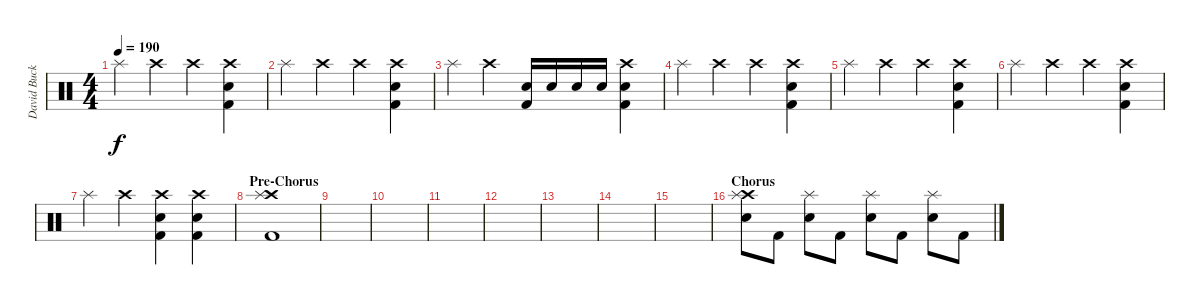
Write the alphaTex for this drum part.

\track ("David Buckner" "David Buck") {instrument percussion}
\staff {score}
\articulation defaults
\ts (4 4)
\tempo 190
\clef neutral
\ks c "Splash (hit)".4{dy f} "Crash high (hit)".4 "Crash high (hit)".4
("Crash high (hit)" "Snare (hit) 2" "Kick (hit) 2").4 |
"Splash (hit)".4 "Crash high (hit)".4 "Crash high (hit)".4 ("Crash high (hit)" "Snare (hit) 2" "Kick (hit) 2").4 |
"Splash (hit)".4 "Crash high (hit)".4 ("Snare (hit) 2" "Kick (hit) 2").16 "Snare (hit) 2".16 "Snare (hit) 2".16 "Snare (hit) 2".16 ("Crash high (hit)" "Snare (hit) 2" "Kick (hit) 2").4 |
"Splash (hit)".4 "Crash high (hit)".4 "Crash high (hit)".4 ("Crash high (hit)" "Snare (hit) 2" "Kick (hit) 2").4 |
"Splash (hit)".4 "Crash high (hit)".4 "Crash high (hit)".4 ("Crash high (hit)" "Snare (hit) 2" "Kick (hit) 2").4 |
"Splash (hit)".4 "Crash high (hit)".4 "Crash high (hit)".4 ("Crash high (hit)" "Snare (hit) 2" "Kick (hit) 2").4 |
"Splash (hit)".4 "Crash high (hit)".4 ("Crash high (hit)" "Snare (hit) 2" "Kick (hit) 2").4 ("Crash high (hit)" "Snare (hit) 2" "Kick (hit) 2").4 |
\section ("" "Pre-Chorus")
("Crash high (hit)" "Splash (hit)" "Kick (hit) 2").1 |
|
|
|
|
|
|
|
\section ("" "Chorus")
("Crash high (hit)" "Splash (hit)" "Snare (hit) 2").8 "Kick (hit) 2".8 ("Splash (hit)" "Snare (hit) 2").8 "Kick (hit) 2".8 ("Splash (hit)" "Snare (hit) 2").8 "Kick (hit) 2".8 ("Splash (hit)" "Snare (hit) 2").8 "Kick (hit) 2".8
